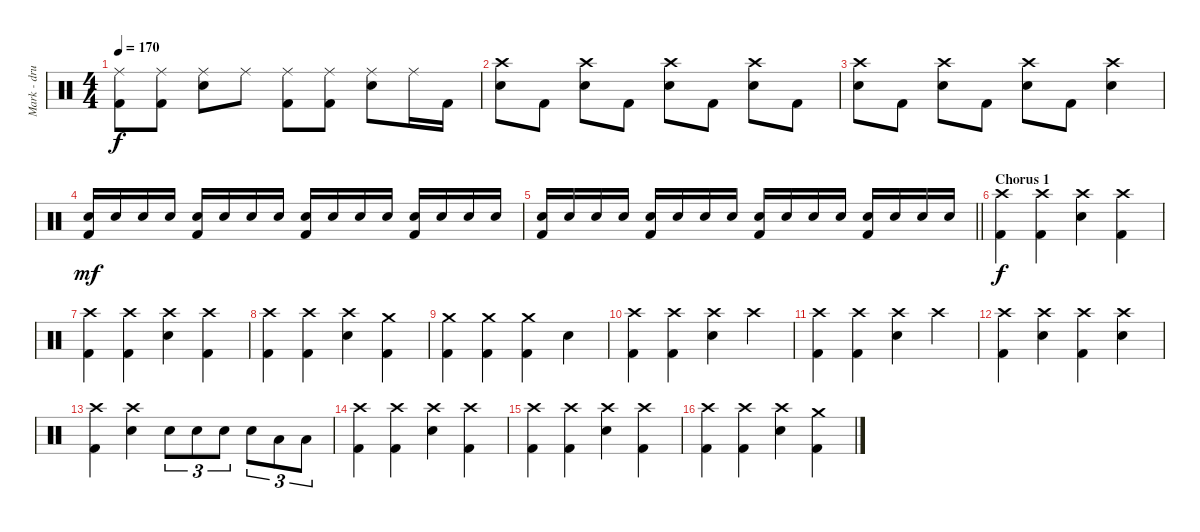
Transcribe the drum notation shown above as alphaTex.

\track ("Mark - drums" "Mark - dru") {instrument percussion}
\staff {score}
\articulation defaults
\ts (4 4)
\tempo 170
\clef neutral
\ks c
("Kick (hit) 2" "Ride (middle)").8{dy f} ("Kick (hit) 2" "Ride (middle)").8 ("Electric Snare (hit)" "Ride (middle)").8 "Ride (middle)".8 ("Kick (hit) 2" "Ride (middle)").8 ("Kick (hit) 2" "Ride (middle)").8 ("Electric Snare (hit)" "Ride (middle)").8 "Ride (middle)".16 "Kick (hit) 2".16 |
("Electric Snare (hit)" "Crash high (hit)").8 "Kick (hit) 2".8 ("Electric Snare (hit)" "Crash high (hit)").8 "Kick (hit) 2".8 ("Electric Snare (hit)" "Crash high (hit)").8 "Kick (hit) 2".8 ("Electric Snare (hit)" "Crash high (hit)").8 "Kick (hit) 2".8 |
("Electric Snare (hit)" "Crash high (hit)").8 "Kick (hit) 2".8 ("Electric Snare (hit)" "Crash high (hit)").8 "Kick (hit) 2".8 ("Electric Snare (hit)" "Crash high (hit)").8 "Kick (hit) 2".8 ("Electric Snare (hit)" "Crash high (hit)").4 |
("Kick (hit) 2" "Electric Snare (hit)").16{dy mf} "Electric Snare (hit)".16 "Electric Snare (hit)".16 "Electric Snare (hit)".16 ("Kick (hit) 2" "Electric Snare (hit)").16 "Electric Snare (hit)".16 "Electric Snare (hit)".16 "Electric Snare (hit)".16 ("Kick (hit) 2" "Electric Snare (hit)").16 "Electric Snare (hit)".16 "Electric Snare (hit)".16 "Electric Snare (hit)".16 ("Kick (hit) 2" "Electric Snare (hit)").16 "Electric Snare (hit)".16 "Electric Snare (hit)".16 "Electric Snare (hit)".16 |
\barLineRight lightlight
("Kick (hit) 2" "Electric Snare (hit)").16 "Electric Snare (hit)".16 "Electric Snare (hit)".16 "Electric Snare (hit)".16 ("Kick (hit) 2" "Electric Snare (hit)").16 "Electric Snare (hit)".16 "Electric Snare (hit)".16 "Electric Snare (hit)".16 ("Kick (hit) 2" "Electric Snare (hit)").16 "Electric Snare (hit)".16 "Electric Snare (hit)".16 "Electric Snare (hit)".16 ("Kick (hit) 2" "Electric Snare (hit)").16 "Electric Snare (hit)".16 "Electric Snare (hit)".16 "Electric Snare (hit)".16 |
\section ("" "Chorus 1")
("Kick (hit) 2" "Crash high (hit)").4{dy f} ("Kick (hit) 2" "Crash high (hit)").4 ("Electric Snare (hit)" "Crash high (hit)").4 ("Kick (hit) 2" "Crash high (hit)").4 |
("Kick (hit) 2" "Crash high (hit)").4 ("Kick (hit) 2" "Crash high (hit)").4 ("Electric Snare (hit)" "Crash high (hit)").4 ("Kick (hit) 2" "Crash high (hit)").4 |
("Kick (hit) 2" "Crash high (hit)").4 ("Kick (hit) 2" "Crash high (hit)").4 ("Electric Snare (hit)" "Crash high (hit)").4 ("Kick (hit) 2" "Crash medium (hit)").4 |
("Kick (hit) 2" "Crash medium (hit)").4 ("Kick (hit) 2" "Crash medium (hit)").4 ("Kick (hit) 2" "Crash medium (hit)").4 "Electric Snare (hit)".4 |
("Kick (hit) 2" "Crash high (hit)").4 ("Kick (hit) 2" "Crash high (hit)").4 ("Electric Snare (hit)" "Crash high (hit)").4 "Crash high (hit)".4 |
("Kick (hit) 2" "Crash high (hit)").4 ("Kick (hit) 2" "Crash high (hit)").4 ("Electric Snare (hit)" "Crash high (hit)").4 "Crash high (hit)".4 |
("Kick (hit) 2" "Crash high (hit)").4 ("Electric Snare (hit)" "Crash high (hit)").4 ("Kick (hit) 2" "Crash high (hit)").4 ("Electric Snare (hit)" "Crash high (hit)").4 |
("Kick (hit) 2" "Crash high (hit)").4 ("Electric Snare (hit)" "Crash high (hit)").4 "Electric Snare (hit)".8{tu (3 2)} "Electric Snare (hit)".8{tu (3 2)} "Electric Snare (hit)".8{tu (3 2)} "Electric Snare (hit)".8{tu (3 2)} "Low Tom (hit)".8{tu (3 2)} "Low Tom (hit)".8{tu (3 2)} |
("Kick (hit) 2" "Crash high (hit)").4 ("Kick (hit) 2" "Crash high (hit)").4 ("Electric Snare (hit)" "Crash high (hit)").4 ("Kick (hit) 2" "Crash high (hit)").4 |
("Kick (hit) 2" "Crash high (hit)").4 ("Kick (hit) 2" "Crash high (hit)").4 ("Electric Snare (hit)" "Crash high (hit)").4 ("Kick (hit) 2" "Crash high (hit)").4 |
("Kick (hit) 2" "Crash high (hit)").4 ("Kick (hit) 2" "Crash high (hit)").4 ("Electric Snare (hit)" "Crash high (hit)").4 ("Kick (hit) 2" "Crash medium (hit)").4
